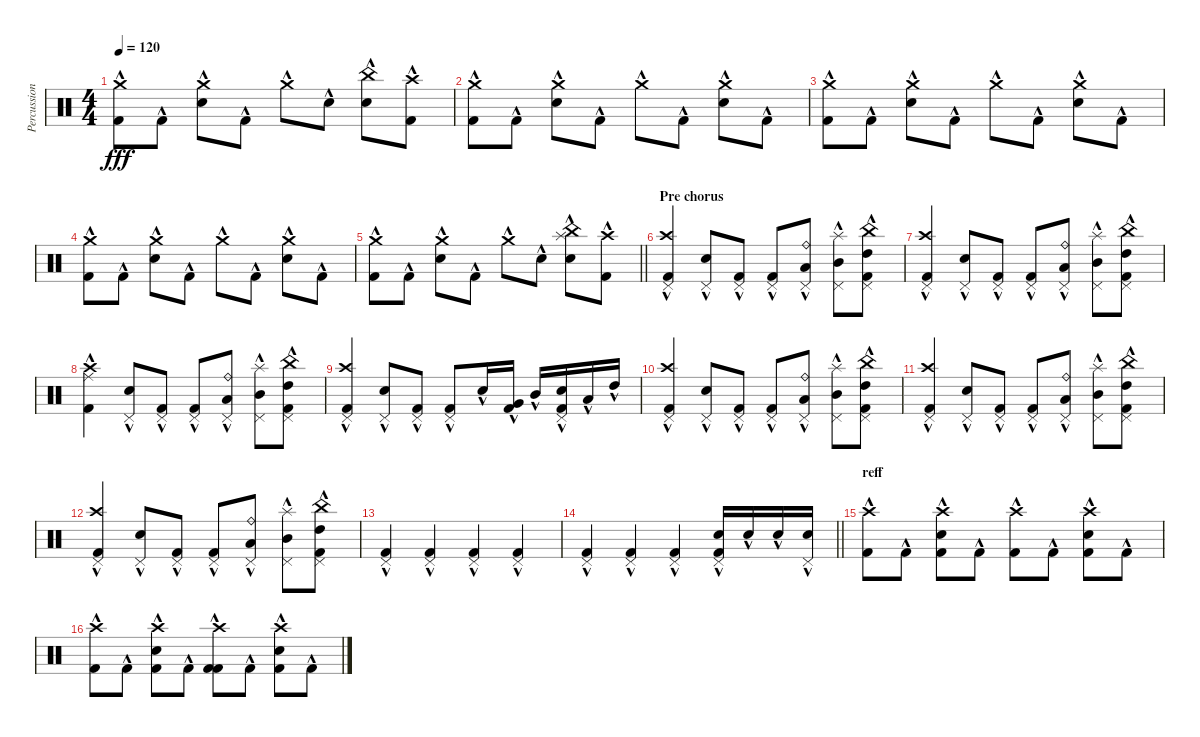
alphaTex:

\track ("Percussion" "Percussion") {instrument percussion}
\staff {score}
\articulation defaults
\ts (4 4)
\tempo 120
\clef neutral
\ks c
("Crash medium (hit)"{hac} "Kick (hit) 2"{hac}).8{dy fff} "Kick (hit) 2"{hac}.8 ("Crash medium (hit)"{hac} "Electric Snare (hit)"{hac}).8 "Kick (hit) 2"{hac}.8 "Crash medium (hit)"{hac}.8 "Snare (hit) 2"{hac}.8 ("China (hit)"{hac} "Electric Snare (hit)"{hac}).8 ("Crash high (hit)"{hac} "Kick (hit) 2"{hac}).8 |
("Crash medium (hit)"{hac} "Kick (hit) 2"{hac}).8 "Kick (hit) 2"{hac}.8 ("Crash medium (hit)"{hac} "Electric Snare (hit)"{hac}).8 "Kick (hit) 2"{hac}.8 "Crash medium (hit)"{hac}.8 "Kick (hit) 2"{hac}.8 ("Crash medium (hit)"{hac} "Electric Snare (hit)"{hac}).8 "Kick (hit) 2"{hac}.8 |
("Crash medium (hit)"{hac} "Kick (hit) 2"{hac}).8 "Kick (hit) 2"{hac}.8 ("Crash medium (hit)"{hac} "Electric Snare (hit)"{hac}).8 "Kick (hit) 2"{hac}.8 "Crash medium (hit)"{hac}.8 "Kick (hit) 2"{hac}.8 ("Crash medium (hit)"{hac} "Electric Snare (hit)"{hac}).8 "Kick (hit) 2"{hac}.8 |
("Crash medium (hit)"{hac} "Kick (hit) 2"{hac}).8 "Kick (hit) 2"{hac}.8 ("Crash medium (hit)"{hac} "Electric Snare (hit)"{hac}).8 "Kick (hit) 2"{hac}.8 "Crash medium (hit)"{hac}.8 "Kick (hit) 2"{hac}.8 ("Crash medium (hit)"{hac} "Electric Snare (hit)"{hac}).8 "Kick (hit) 2"{hac}.8 |
\barLineRight lightlight
("Crash medium (hit)"{hac} "Kick (hit) 2"{hac}).8 "Kick (hit) 2"{hac}.8 ("Crash medium (hit)"{hac} "Electric Snare (hit)"{hac}).8 "Kick (hit) 2"{hac}.8 "Crash medium (hit)"{hac}.8 "Snare (hit) 2"{hac}.8 ("China (hit)"{hac} "Splash (hit)"{hac} "Electric Snare (hit)"{hac}).8 ("Crash high (hit)"{hac} "Kick (hit) 2"{hac}).8 |
\section ("" "Pre chorus")
("Pedal Hi-Hat (hit)" "Crash high (hit)"{hac} "Kick (hit) 2"{hac}).4 ("Pedal Hi-Hat (hit)" "Electric Snare (hit)"{hac}).8 ("Pedal Hi-Hat (hit)" "Kick (hit) 2"{hac}).8 ("Pedal Hi-Hat (hit)" "Kick (hit) 2"{hac}).8 ("Ride (bell)"{hac} "Low Tom (hit)"{hac} "Pedal Hi-Hat (hit)").8 ("Splash (hit)"{hac} "Mid Tom (hit)"{hac} "Pedal Hi-Hat (hit)").8 ("China (hit)"{hac} "High Tom (hit)"{hac} "Kick (hit) 2"{hac} "Pedal Hi-Hat (hit)").8 |
("Pedal Hi-Hat (hit)" "Crash high (hit)"{hac} "Kick (hit) 2"{hac}).4 ("Pedal Hi-Hat (hit)" "Electric Snare (hit)"{hac}).8 ("Pedal Hi-Hat (hit)" "Kick (hit) 2"{hac}).8 ("Pedal Hi-Hat (hit)" "Kick (hit) 2"{hac}).8 ("Ride (bell)"{hac} "Low Tom (hit)"{hac} "Pedal Hi-Hat (hit)").8 ("Splash (hit)"{hac} "Mid Tom (hit)"{hac} "Pedal Hi-Hat (hit)").8 ("China (hit)"{hac} "High Tom (hit)"{hac} "Kick (hit) 2"{hac} "Pedal Hi-Hat (hit)").8 |
("Ride (middle)" "Crash high (hit)"{hac} "Kick (hit) 2"{hac}).4 ("Pedal Hi-Hat (hit)" "Electric Snare (hit)"{hac}).8 ("Pedal Hi-Hat (hit)" "Kick (hit) 2"{hac}).8 ("Pedal Hi-Hat (hit)" "Kick (hit) 2"{hac}).8 ("Ride (bell)"{hac} "Low Tom (hit)"{hac} "Pedal Hi-Hat (hit)").8 ("Splash (hit)"{hac} "Mid Tom (hit)"{hac} "Pedal Hi-Hat (hit)").8 ("China (hit)"{hac} "High Tom (hit)"{hac} "Kick (hit) 2"{hac} "Pedal Hi-Hat (hit)").8 |
("Pedal Hi-Hat (hit)" "Crash high (hit)"{hac} "Kick (hit) 2"{hac}).4 ("Pedal Hi-Hat (hit)" "Electric Snare (hit)"{hac}).8 ("Pedal Hi-Hat (hit)" "Kick (hit) 2"{hac}).8 ("Pedal Hi-Hat (hit)" "Kick (hit) 2"{hac}).8 "Electric Snare (hit)"{hac}.16 ("Very Low Tom (hit)"{hac} "Kick (hit) 2"{hac}).16 "Mid Tom (hit)"{hac}.16 ("Pedal Hi-Hat (hit)" "Electric Snare (hit)"{hac} "Kick (hit) 2"{hac}).16 "Low Tom (hit)"{hac}.16 "High Tom (hit)"{hac}.16 |
("Pedal Hi-Hat (hit)" "Crash high (hit)"{hac} "Kick (hit) 2"{hac}).4 ("Pedal Hi-Hat (hit)" "Electric Snare (hit)"{hac}).8 ("Pedal Hi-Hat (hit)" "Kick (hit) 2"{hac}).8 ("Pedal Hi-Hat (hit)" "Kick (hit) 2"{hac}).8 ("Ride (bell)"{hac} "Low Tom (hit)"{hac} "Pedal Hi-Hat (hit)").8 ("Splash (hit)"{hac} "Mid Tom (hit)"{hac} "Pedal Hi-Hat (hit)").8 ("China (hit)"{hac} "High Tom (hit)"{hac} "Kick (hit) 2"{hac} "Pedal Hi-Hat (hit)").8 |
("Pedal Hi-Hat (hit)" "Crash high (hit)"{hac} "Kick (hit) 2"{hac}).4 ("Pedal Hi-Hat (hit)" "Electric Snare (hit)"{hac}).8 ("Pedal Hi-Hat (hit)" "Kick (hit) 2"{hac}).8 ("Pedal Hi-Hat (hit)" "Kick (hit) 2"{hac}).8 ("Ride (bell)"{hac} "Low Tom (hit)"{hac} "Pedal Hi-Hat (hit)").8 ("Splash (hit)"{hac} "Mid Tom (hit)"{hac} "Pedal Hi-Hat (hit)").8 ("China (hit)"{hac} "High Tom (hit)"{hac} "Kick (hit) 2"{hac} "Pedal Hi-Hat (hit)").8 |
("Pedal Hi-Hat (hit)" "Crash high (hit)"{hac} "Kick (hit) 2"{hac}).4 ("Pedal Hi-Hat (hit)" "Electric Snare (hit)"{hac}).8 ("Pedal Hi-Hat (hit)" "Kick (hit) 2"{hac}).8 ("Pedal Hi-Hat (hit)" "Kick (hit) 2"{hac}).8 ("Ride (bell)"{hac} "Low Tom (hit)"{hac} "Pedal Hi-Hat (hit)").8 ("Splash (hit)"{hac} "Mid Tom (hit)"{hac} "Pedal Hi-Hat (hit)").8 ("China (hit)"{hac} "High Tom (hit)"{hac} "Kick (hit) 2"{hac} "Pedal Hi-Hat (hit)").8 |
("Pedal Hi-Hat (hit)"{hac} "Kick (hit) 2"{hac}).4 ("Pedal Hi-Hat (hit)"{hac} "Kick (hit) 2"{hac}).4 ("Pedal Hi-Hat (hit)"{hac} "Kick (hit) 2"{hac}).4 ("Pedal Hi-Hat (hit)"{hac} "Kick (hit) 2"{hac}).4 |
\barLineRight lightlight
("Pedal Hi-Hat (hit)"{hac} "Kick (hit) 2"{hac}).4 ("Pedal Hi-Hat (hit)"{hac} "Kick (hit) 2"{hac}).4 ("Pedal Hi-Hat (hit)"{hac} "Kick (hit) 2"{hac}).4 ("Pedal Hi-Hat (hit)" "Kick (hit) 2"{hac} "Electric Snare (hit)"{hac}).16 "Electric Snare (hit)"{hac}.16 "Electric Snare (hit)"{hac}.16 ("Pedal Hi-Hat (hit)" "Electric Snare (hit)"{hac}).16 |
\section ("" "reff")
("Crash high (hit)"{hac} "Kick (hit) 2"{hac}).8 "Kick (hit) 2"{hac}.8 ("Crash high (hit)"{hac} "Electric Snare (hit)"{hac} "Kick (hit) 2"{hac}).8 "Kick (hit) 2"{hac}.8 ("Crash high (hit)"{hac} "Kick (hit) 2"{hac}).8 "Kick (hit) 2"{hac}.8 ("Crash high (hit)"{hac} "Electric Snare (hit)"{hac} "Kick (hit) 2"{hac}).8 "Kick (hit) 2"{hac}.8 |
("Crash high (hit)"{hac} "Kick (hit) 2"{hac}).8 "Kick (hit) 2"{hac}.8 ("Crash high (hit)"{hac} "Electric Snare (hit)"{hac} "Kick (hit) 2"{hac}).8 "Kick (hit) 2"{hac}.8 ("Crash high (hit)"{hac} "Kick (hit) 2" "Kick (hit) 2"{hac}).8 "Kick (hit) 2"{hac}.8 ("Crash high (hit)"{hac} "Electric Snare (hit)"{hac} "Kick (hit) 2"{hac}).8 "Kick (hit) 2"{hac}.8
